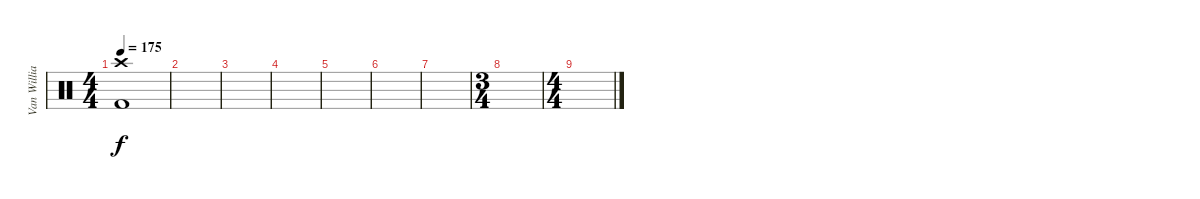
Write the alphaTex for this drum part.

\track ("Van Williams" "Van Willia") {instrument percussion}
\staff {score}
\articulation defaults
\ts (4 4)
\tempo 175
\clef neutral
\ks c
("Crash high (hit)" "Kick (hit) 2").1{dy f} |
|
|
|
|
|
|
\ts (3 4)
|
\ts (4 4)
